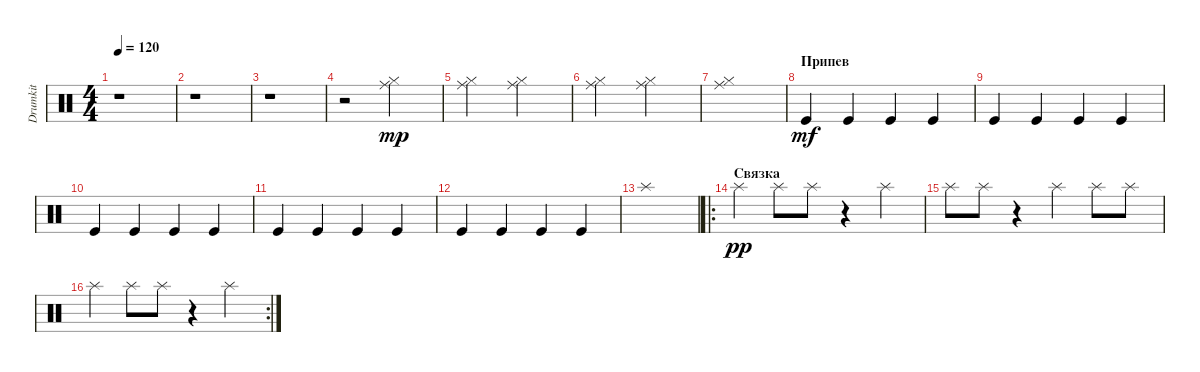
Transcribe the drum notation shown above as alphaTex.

\track ("Drumkit" "Drumkit") {instrument percussion}
\staff {score}
\articulation defaults
\ts (4 4)
\tempo 120
\clef neutral
\ks c
r.1{dy mp} |
r.1 |
r.1 |
r.2 ("Hi-Hat (closed)" "Ride (middle)").2 |
("Hi-Hat (closed)" "Ride (middle)").2 ("Hi-Hat (closed)" "Ride (middle)").2 |
("Hi-Hat (closed)" "Ride (middle)").2 ("Hi-Hat (closed)" "Ride (middle)").2 |
("Hi-Hat (closed)" "Ride (middle)").1 |
\section ("" "Припев")
"Kick (hit)".4{dy mf} "Kick (hit)".4 "Kick (hit)".4 "Kick (hit)".4 |
"Kick (hit)".4 "Kick (hit)".4 "Kick (hit)".4 "Kick (hit)".4 |
"Kick (hit)".4 "Kick (hit)".4 "Kick (hit)".4 "Kick (hit)".4 |
"Kick (hit)".4 "Kick (hit)".4 "Kick (hit)".4 "Kick (hit)".4 |
"Kick (hit)".4 "Kick (hit)".4 "Kick (hit)".4 "Kick (hit)".4 |
"Splash (hit)".1 |
\ro
\section ("" "Связка")
"Splash (hit)".4{dy pp} "Splash (hit)".8 "Splash (hit)".8 r.4 "Splash (hit)".4 |
"Splash (hit)".8 "Splash (hit)".8 r.4 "Splash (hit)".4 "Splash (hit)".8 "Splash (hit)".8 |
\rc 2 "Splash (hit)".4 "Splash (hit)".8 "Splash (hit)".8
r.4 "Splash (hit)".4
